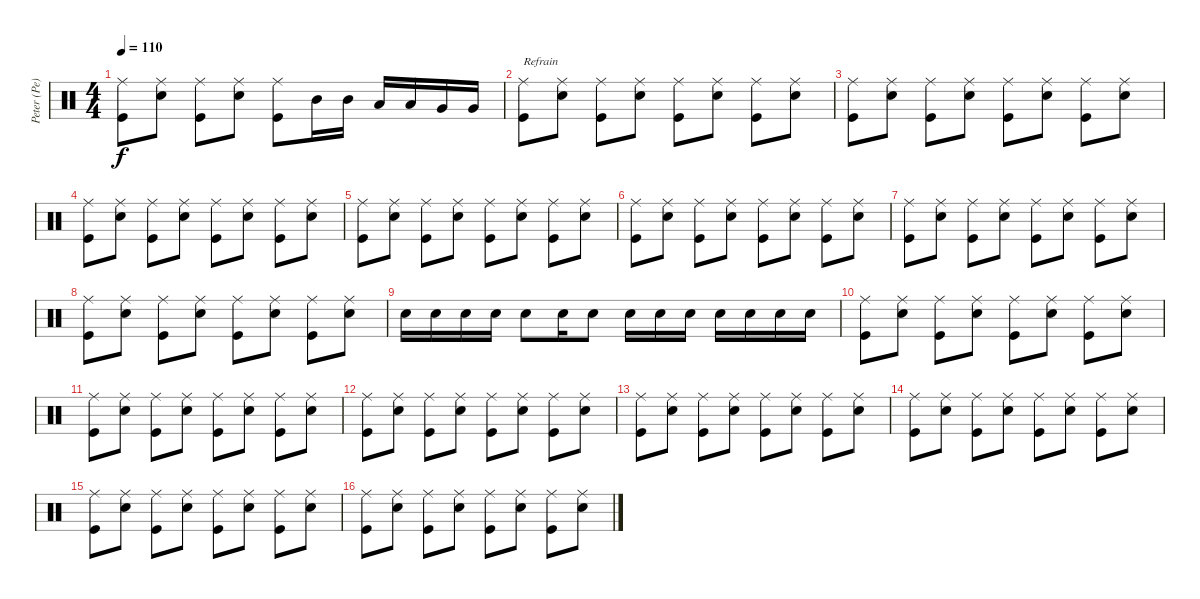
\track ("Peter (Pe) Schorowsky" "Peter (Pe)") {instrument percussion}
\staff {score}
\articulation defaults
\ts (4 4)
\tempo 110
\clef neutral
\ks c
("Ride (middle)" "Kick (hit)").8{dy f} ("Ride (middle)" "Snare (hit) 2").8 ("Ride (middle)" "Kick (hit)").8 ("Ride (middle)" "Snare (hit) 2").8 ("Ride (middle)" "Kick (hit)").8 "Mid Tom (hit)".16 "Mid Tom (hit)".16 "Low Tom (hit)".16 "Low Tom (hit)".16 "Very Low Tom (hit)".16 "Very Low Tom (hit)".16 |
("Ride (middle)" "Kick (hit)").8{txt "Refrain"} ("Ride (middle)" "Snare (hit) 2").8 ("Ride (middle)" "Kick (hit)").8 ("Ride (middle)" "Snare (hit) 2").8 ("Ride (middle)" "Kick (hit)").8 ("Ride (middle)" "Snare (hit) 2").8 ("Ride (middle)" "Kick (hit)").8 ("Ride (middle)" "Snare (hit) 2").8 |
("Ride (middle)" "Kick (hit)").8 ("Ride (middle)" "Snare (hit) 2").8 ("Ride (middle)" "Kick (hit)").8 ("Ride (middle)" "Snare (hit) 2").8 ("Ride (middle)" "Kick (hit)").8 ("Ride (middle)" "Snare (hit) 2").8 ("Ride (middle)" "Kick (hit)").8 ("Ride (middle)" "Snare (hit) 2").8 |
("Ride (middle)" "Kick (hit)").8 ("Ride (middle)" "Snare (hit) 2").8 ("Ride (middle)" "Kick (hit)").8 ("Ride (middle)" "Snare (hit) 2").8 ("Ride (middle)" "Kick (hit)").8 ("Ride (middle)" "Snare (hit) 2").8 ("Ride (middle)" "Kick (hit)").8 ("Ride (middle)" "Snare (hit) 2").8 |
("Ride (middle)" "Kick (hit)").8 ("Ride (middle)" "Snare (hit) 2").8 ("Ride (middle)" "Kick (hit)").8 ("Ride (middle)" "Snare (hit) 2").8 ("Ride (middle)" "Kick (hit)").8 ("Ride (middle)" "Snare (hit) 2").8 ("Ride (middle)" "Kick (hit)").8 ("Ride (middle)" "Snare (hit) 2").8 |
("Ride (middle)" "Kick (hit)").8 ("Ride (middle)" "Snare (hit) 2").8 ("Ride (middle)" "Kick (hit)").8 ("Ride (middle)" "Snare (hit) 2").8 ("Ride (middle)" "Kick (hit)").8 ("Ride (middle)" "Snare (hit) 2").8 ("Ride (middle)" "Kick (hit)").8 ("Ride (middle)" "Snare (hit) 2").8 |
("Ride (middle)" "Kick (hit)").8 ("Ride (middle)" "Snare (hit) 2").8 ("Ride (middle)" "Kick (hit)").8 ("Ride (middle)" "Snare (hit) 2").8 ("Ride (middle)" "Kick (hit)").8 ("Ride (middle)" "Snare (hit) 2").8 ("Ride (middle)" "Kick (hit)").8 ("Ride (middle)" "Snare (hit) 2").8 |
("Ride (middle)" "Kick (hit)").8 ("Ride (middle)" "Snare (hit) 2").8 ("Ride (middle)" "Kick (hit)").8 ("Ride (middle)" "Snare (hit) 2").8 ("Ride (middle)" "Kick (hit)").8 ("Ride (middle)" "Snare (hit) 2").8 ("Ride (middle)" "Kick (hit)").8 ("Ride (middle)" "Snare (hit) 2").8 |
"Snare (hit) 2".16 "Snare (hit) 2".16 "Snare (hit) 2".16 "Snare (hit) 2".16 "Snare (hit) 2".8 "Snare (hit) 2".16 "Snare (hit) 2".8 "Snare (hit) 2".16 "Snare (hit) 2".16 "Snare (hit) 2".16 "Snare (hit) 2".16 "Snare (hit) 2".16 "Snare (hit) 2".16 "Snare (hit) 2".16 |
("Ride (middle)" "Kick (hit)").8 ("Ride (middle)" "Snare (hit) 2").8 ("Ride (middle)" "Kick (hit)").8 ("Ride (middle)" "Snare (hit) 2").8 ("Ride (middle)" "Kick (hit)").8 ("Ride (middle)" "Snare (hit) 2").8 ("Ride (middle)" "Kick (hit)").8 ("Ride (middle)" "Snare (hit) 2").8 |
("Ride (middle)" "Kick (hit)").8 ("Ride (middle)" "Snare (hit) 2").8 ("Ride (middle)" "Kick (hit)").8 ("Ride (middle)" "Snare (hit) 2").8 ("Ride (middle)" "Kick (hit)").8 ("Ride (middle)" "Snare (hit) 2").8 ("Ride (middle)" "Kick (hit)").8 ("Ride (middle)" "Snare (hit) 2").8 |
("Ride (middle)" "Kick (hit)").8 ("Ride (middle)" "Snare (hit) 2").8 ("Ride (middle)" "Kick (hit)").8 ("Ride (middle)" "Snare (hit) 2").8 ("Ride (middle)" "Kick (hit)").8 ("Ride (middle)" "Snare (hit) 2").8 ("Ride (middle)" "Kick (hit)").8 ("Ride (middle)" "Snare (hit) 2").8 |
("Ride (middle)" "Kick (hit)").8 ("Ride (middle)" "Snare (hit) 2").8 ("Ride (middle)" "Kick (hit)").8 ("Ride (middle)" "Snare (hit) 2").8 ("Ride (middle)" "Kick (hit)").8 ("Ride (middle)" "Snare (hit) 2").8 ("Ride (middle)" "Kick (hit)").8 ("Ride (middle)" "Snare (hit) 2").8 |
("Ride (middle)" "Kick (hit)").8 ("Ride (middle)" "Snare (hit) 2").8 ("Ride (middle)" "Kick (hit)").8 ("Ride (middle)" "Snare (hit) 2").8 ("Ride (middle)" "Kick (hit)").8 ("Ride (middle)" "Snare (hit) 2").8 ("Ride (middle)" "Kick (hit)").8 ("Ride (middle)" "Snare (hit) 2").8 |
("Ride (middle)" "Kick (hit)").8 ("Ride (middle)" "Snare (hit) 2").8 ("Ride (middle)" "Kick (hit)").8 ("Ride (middle)" "Snare (hit) 2").8 ("Ride (middle)" "Kick (hit)").8 ("Ride (middle)" "Snare (hit) 2").8 ("Ride (middle)" "Kick (hit)").8 ("Ride (middle)" "Snare (hit) 2").8 |
("Ride (middle)" "Kick (hit)").8 ("Ride (middle)" "Snare (hit) 2").8 ("Ride (middle)" "Kick (hit)").8 ("Ride (middle)" "Snare (hit) 2").8 ("Ride (middle)" "Kick (hit)").8 ("Ride (middle)" "Snare (hit) 2").8 ("Ride (middle)" "Kick (hit)").8 ("Ride (middle)" "Snare (hit) 2").8
